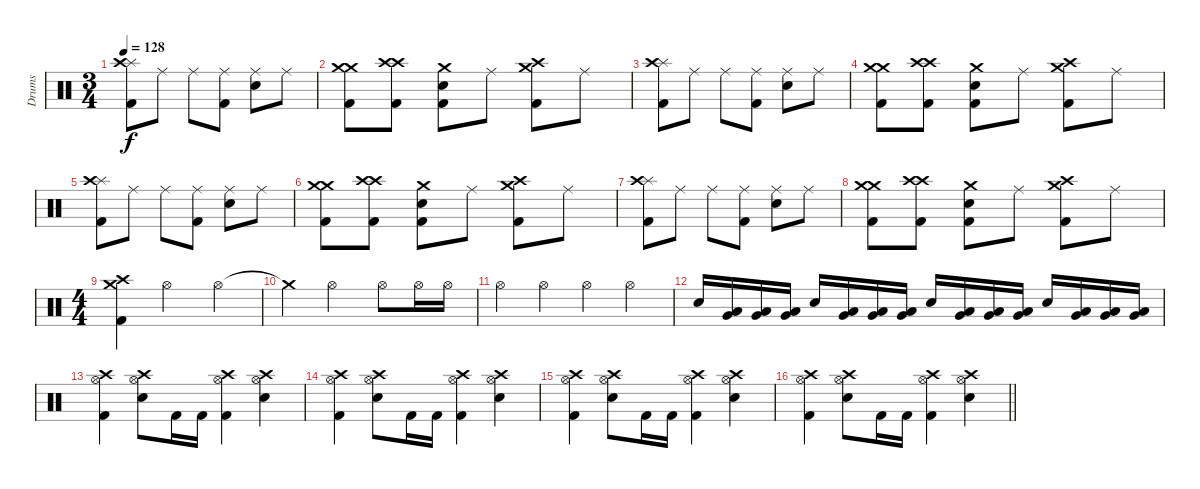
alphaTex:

\track ("Drums" "Drums") {instrument percussion}
\staff {score}
\articulation defaults
\ts (3 4)
\tempo 128
\clef neutral
\ks c
("Splash (hit)" "Crash high (hit)" "Kick (hit) 2").8{dy f} "Ride (middle)".8 "Ride (middle)".8 ("Ride (middle)" "Kick (hit) 2").8 ("Ride (middle)" "Snare (hit) 2").8 "Ride (middle)".8 |
("Crash medium (hit)" "Crash medium (hit)" "Kick (hit) 2").8 ("Crash high (hit)" "Crash high (hit)" "Kick (hit) 2").8 ("Crash medium (hit)" "Snare (hit) 2" "Kick (hit) 2").8 "Ride (middle)".8 ("Crash medium (hit)" "Crash high (hit)" "Kick (hit) 2").8 "Ride (middle)".8 |
("Splash (hit)" "Crash high (hit)" "Kick (hit) 2").8 "Ride (middle)".8 "Ride (middle)".8 ("Ride (middle)" "Kick (hit) 2").8 ("Ride (middle)" "Snare (hit) 2").8 "Ride (middle)".8 |
("Crash medium (hit)" "Crash medium (hit)" "Kick (hit) 2").8 ("Crash high (hit)" "Crash high (hit)" "Kick (hit) 2").8 ("Crash medium (hit)" "Snare (hit) 2" "Kick (hit) 2").8 "Ride (middle)".8 ("Crash medium (hit)" "Crash high (hit)" "Kick (hit) 2").8 "Ride (middle)".8 |
("Splash (hit)" "Crash high (hit)" "Kick (hit) 2").8 "Ride (middle)".8 "Ride (middle)".8 ("Ride (middle)" "Kick (hit) 2").8 ("Ride (middle)" "Snare (hit) 2").8 "Ride (middle)".8 |
("Crash medium (hit)" "Crash medium (hit)" "Kick (hit) 2").8 ("Crash high (hit)" "Crash high (hit)" "Kick (hit) 2").8 ("Crash medium (hit)" "Snare (hit) 2" "Kick (hit) 2").8 "Ride (middle)".8 ("Crash medium (hit)" "Crash high (hit)" "Kick (hit) 2").8 "Ride (middle)".8 |
("Splash (hit)" "Crash high (hit)" "Kick (hit) 2").8 "Ride (middle)".8 "Ride (middle)".8 ("Ride (middle)" "Kick (hit) 2").8 ("Ride (middle)" "Snare (hit) 2").8 "Ride (middle)".8 |
("Crash medium (hit)" "Crash medium (hit)" "Kick (hit) 2").8 ("Crash high (hit)" "Crash high (hit)" "Kick (hit) 2").8 ("Crash medium (hit)" "Snare (hit) 2" "Kick (hit) 2").8 "Ride (middle)".8 ("Crash medium (hit)" "Crash high (hit)" "Kick (hit) 2").8 "Ride (middle)".8 |
\ts (4 4)
("Crash medium (hit)" "Crash high (hit)" "Kick (hit) 2").4 "Hi-Hat (open)".2 "Hi-Hat (open)".4 |
"Crash medium (hit)"{t}.4 "Hi-Hat (open)".2 "Hi-Hat (open)".8 "Hi-Hat (open)".16 "Hi-Hat (open)".16 |
"Hi-Hat (open)".4 "Hi-Hat (open)".4 "Hi-Hat (open)".4 "Hi-Hat (open)".4 |
"Snare (hit) 2".16 ("Very Low Tom (hit)" "Low Tom (hit)").16 ("Very Low Tom (hit)" "Low Tom (hit)").16 ("Very Low Tom (hit)" "Low Tom (hit)").16 "Snare (hit) 2".16 ("Very Low Tom (hit)" "Low Tom (hit)").16 ("Very Low Tom (hit)" "Low Tom (hit)").16 ("Very Low Tom (hit)" "Low Tom (hit)").16 "Snare (hit) 2".16 ("Very Low Tom (hit)" "Low Tom (hit)").16 ("Very Low Tom (hit)" "Low Tom (hit)").16 ("Very Low Tom (hit)" "Low Tom (hit)").16 "Snare (hit) 2".16 ("Very Low Tom (hit)" "Low Tom (hit)").16 ("Very Low Tom (hit)" "Low Tom (hit)").16 ("Very Low Tom (hit)" "Low Tom (hit)").16 |
("Hi-Hat (open)" "Crash high (hit)" "Kick (hit) 2").4 ("Hi-Hat (open)" "Snare (hit) 2" "Crash high (hit)").8 "Kick (hit) 2".16 "Kick (hit) 2".16 ("Hi-Hat (open)" "Crash high (hit)" "Kick (hit) 2").4 ("Hi-Hat (open)" "Snare (hit) 2" "Crash high (hit)").4 |
("Hi-Hat (open)" "Crash high (hit)" "Kick (hit) 2").4 ("Hi-Hat (open)" "Snare (hit) 2" "Crash high (hit)").8 "Kick (hit) 2".16 "Kick (hit) 2".16 ("Hi-Hat (open)" "Crash high (hit)" "Kick (hit) 2").4 ("Hi-Hat (open)" "Snare (hit) 2" "Crash high (hit)").4 |
("Hi-Hat (open)" "Crash high (hit)" "Kick (hit) 2").4 ("Hi-Hat (open)" "Snare (hit) 2" "Crash high (hit)").8 "Kick (hit) 2".16 "Kick (hit) 2".16 ("Hi-Hat (open)" "Crash high (hit)" "Kick (hit) 2").4 ("Hi-Hat (open)" "Snare (hit) 2" "Crash high (hit)").4 |
\barLineRight lightlight
("Hi-Hat (open)" "Crash high (hit)" "Kick (hit) 2").4 ("Hi-Hat (open)" "Snare (hit) 2" "Crash high (hit)").8 "Kick (hit) 2".16 "Kick (hit) 2".16 ("Hi-Hat (open)" "Crash high (hit)" "Kick (hit) 2").4 ("Hi-Hat (open)" "Snare (hit) 2" "Crash high (hit)").4
